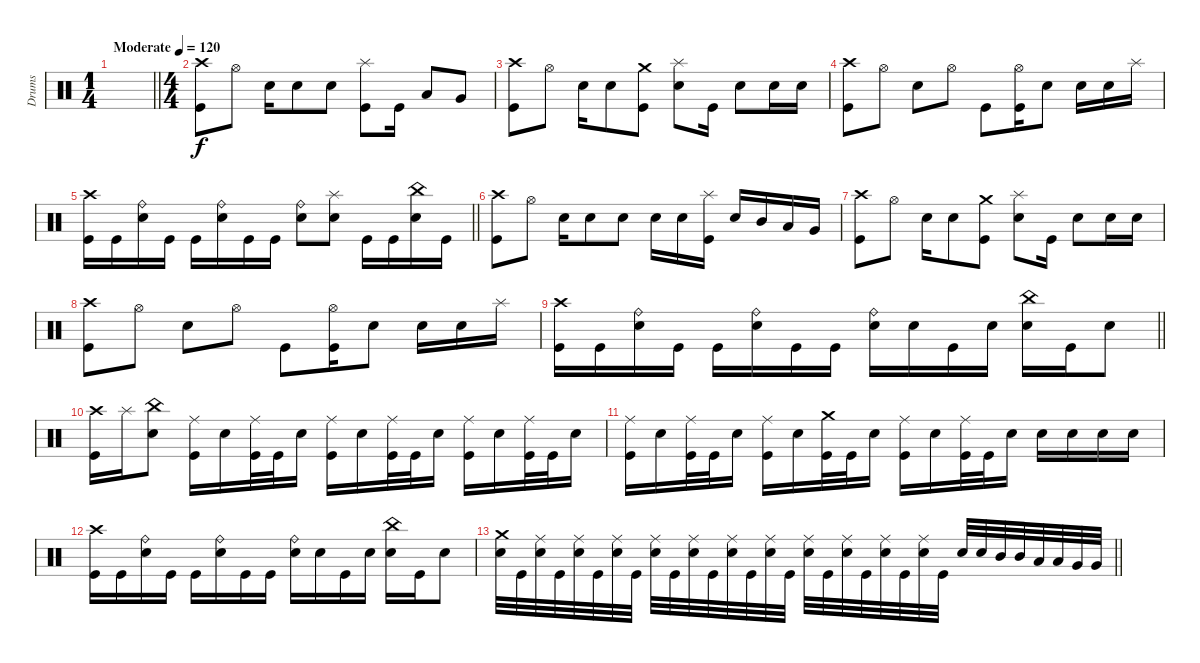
\track ("Drums" "Drums") {instrument percussion}
\staff
\articulation defaults
\ts (1 4)
\tempo (120 "Moderate")
\clef neutral
\barLineRight lightlight
\ks c
|
\ts (4 4)
("Crash high (hit)" "Kick (hit)").8 "Hi-Hat (open)".8 "Electric Snare (hit)".16 "Electric Snare (hit)".8 "Electric Snare (hit)".8 ("Splash (hit)" "Kick (hit)").8 "Kick (hit)".16 "Low Tom (hit)".8 "Very Low Tom (hit)".8 |
("Crash high (hit)" "Kick (hit)").8 "Hi-Hat (open)".8 "Electric Snare (hit)".16 "Electric Snare (hit)".8 ("Crash medium (hit)" "Kick (hit)").8 ("Splash (hit)" "Electric Snare (hit)").8 "Kick (hit)".16 "Electric Snare (hit)".8 "Electric Snare (hit)".16 "Electric Snare (hit)".16 |
("Crash high (hit)" "Kick (hit)").8 "Hi-Hat (open)".8 "Electric Snare (hit)".8 "Hi-Hat (open)".8 "Kick (hit)".8 ("Hi-Hat (open)" "Kick (hit)").16 "Electric Snare (hit)".8 "Electric Snare (hit)".16 "Electric Snare (hit)".16 "Splash (hit)".16 |
\barLineRight lightlight
("Crash high (hit)" "Kick (hit)").16 "Kick (hit)".16 ("Ride (bell)" "Electric Snare (hit)").16 "Kick (hit)".16 "Kick (hit)".16 ("Ride (bell)" "Electric Snare (hit)").16 "Kick (hit)".16 "Kick (hit)".16 ("Ride (bell)" "Electric Snare (hit)").8 ("Splash (hit)" "Electric Snare (hit)").8 "Kick (hit)".16 "Kick (hit)".16 ("China (hit)" "Electric Snare (hit)").16 "Kick (hit)".16 |
("Crash high (hit)" "Kick (hit)").8 "Hi-Hat (open)".8 "Electric Snare (hit)".16 "Electric Snare (hit)".8 "Electric Snare (hit)".8 "Electric Snare (hit)".16 "Electric Snare (hit)".16 ("Splash (hit)" "Kick (hit)").16 "Electric Snare (hit)".16 "Mid Tom (hit)".16 "Low Tom (hit)".16 "Very Low Tom (hit)".16 |
("Crash high (hit)" "Kick (hit)").8 "Hi-Hat (open)".8 "Electric Snare (hit)".16 "Electric Snare (hit)".8 ("Crash medium (hit)" "Kick (hit)").8 ("Splash (hit)" "Electric Snare (hit)").8 "Kick (hit)".16 "Electric Snare (hit)".8 "Electric Snare (hit)".16 "Electric Snare (hit)".16 |
("Crash high (hit)" "Kick (hit)").8 "Hi-Hat (open)".8 "Electric Snare (hit)".8 "Hi-Hat (open)".8 "Kick (hit)".8 ("Hi-Hat (open)" "Kick (hit)").16 "Electric Snare (hit)".8 "Electric Snare (hit)".16 "Electric Snare (hit)".16 "Splash (hit)".16 |
\barLineRight lightlight
("Crash high (hit)" "Kick (hit)").16 "Kick (hit)".16 ("Ride (bell)" "Electric Snare (hit)").16 "Kick (hit)".16 "Kick (hit)".16 ("Ride (bell)" "Electric Snare (hit)").16 "Kick (hit)".16 "Kick (hit)".16 ("Ride (bell)" "Electric Snare (hit)").16 "Electric Snare (hit)".16 "Kick (hit)".16 "Electric Snare (hit)".16 ("China (hit)" "Electric Snare (hit)").16 "Kick (hit)".16 "Electric Snare (hit)".8 |
("Crash high (hit)" "Kick (hit)").16 "Splash (hit)".16 ("China (hit)" "Electric Snare (hit)").8 ("Ride (middle)" "Kick (hit)").16 "Electric Snare (hit)".16 ("Ride (middle)" "Kick (hit)").32 "Kick (hit)".32 "Electric Snare (hit)".16 ("Ride (middle)" "Kick (hit)").16 "Electric Snare (hit)".16 ("Ride (middle)" "Kick (hit)").32 "Kick (hit)".32 "Electric Snare (hit)".16 ("Ride (middle)" "Kick (hit)").16 "Electric Snare (hit)".16 ("Ride (middle)" "Kick (hit)").32 "Kick (hit)".32 "Electric Snare (hit)".16 |
("Ride (middle)" "Kick (hit)").16 "Electric Snare (hit)".16 ("Ride (middle)" "Kick (hit)").32 "Kick (hit)".32 "Electric Snare (hit)".16 ("Ride (middle)" "Kick (hit)").16 "Electric Snare (hit)".16 ("Crash medium (hit)" "Kick (hit)").32 "Kick (hit)".32 "Electric Snare (hit)".16 ("Ride (middle)" "Kick (hit)").16 "Electric Snare (hit)".16 ("Ride (middle)" "Kick (hit)").32 "Kick (hit)".32 "Electric Snare (hit)".16 "Electric Snare (hit)".16 "Electric Snare (hit)".16 "Electric Snare (hit)".16 "Electric Snare (hit)".16 |
("Crash high (hit)" "Kick (hit)").16 "Kick (hit)".16 ("Ride (bell)" "Electric Snare (hit)").16 "Kick (hit)".16 "Kick (hit)".16 ("Ride (bell)" "Electric Snare (hit)").16 "Kick (hit)".16 "Kick (hit)".16 ("Ride (bell)" "Electric Snare (hit)").16 "Electric Snare (hit)".16 "Kick (hit)".16 "Electric Snare (hit)".16 ("China (hit)" "Electric Snare (hit)").16 "Kick (hit)".16 "Electric Snare (hit)".8 |
\barLineRight lightlight
("Crash medium (hit)" "Electric Snare (hit)").32 "Kick (hit)".32 ("Ride (middle)" "Electric Snare (hit)").32 "Kick (hit)".32 ("Ride (middle)" "Electric Snare (hit)").32 "Kick (hit)".32 ("Ride (middle)" "Electric Snare (hit)").32 "Kick (hit)".32 ("Ride (middle)" "Electric Snare (hit)").32 "Kick (hit)".32 ("Ride (middle)" "Electric Snare (hit)").32 "Kick (hit)".32 ("Ride (middle)" "Electric Snare (hit)").32 "Kick (hit)".32 ("Ride (middle)" "Electric Snare (hit)").32 "Kick (hit)".32 ("Ride (middle)" "Electric Snare (hit)").32 "Kick (hit)".32 ("Ride (middle)" "Electric Snare (hit)").32 "Kick (hit)".32 ("Ride (middle)" "Electric Snare (hit)").32 "Kick (hit)".32 ("Ride (middle)" "Electric Snare (hit)").32 "Kick (hit)".32 "Electric Snare (hit)".32 "Electric Snare (hit)".32 "Mid Tom (hit)".32 "Mid Tom (hit)".32 "Low Tom (hit)".32 "Low Tom (hit)".32 "Very Low Tom (hit)".32 "Very Low Tom (hit)".32
